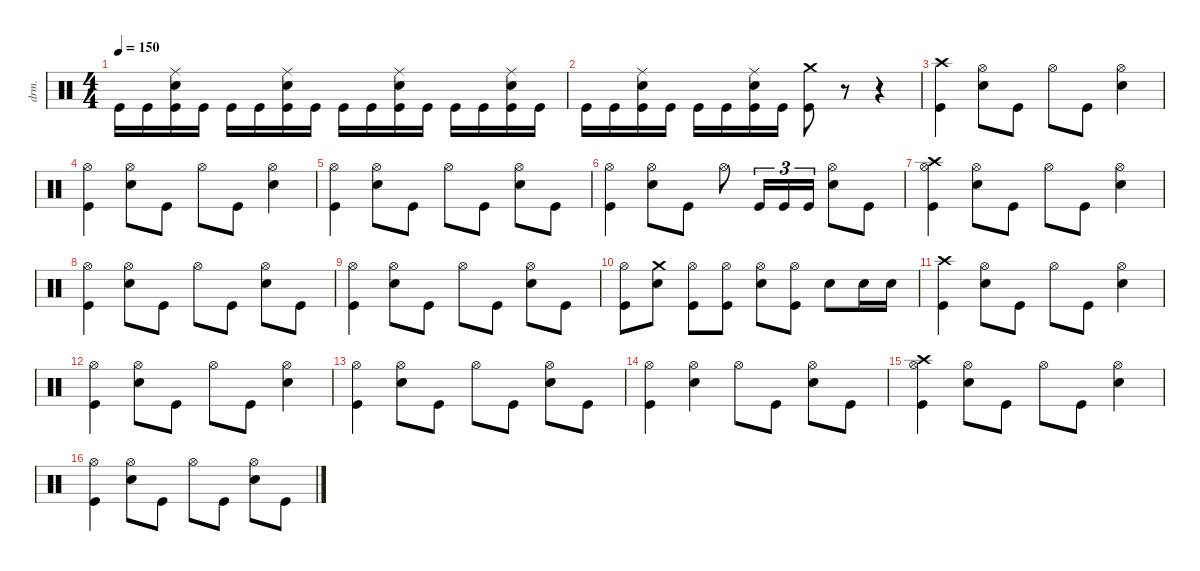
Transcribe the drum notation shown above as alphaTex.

\defaultSystemsLayout 4
\hideDynamics
\bracketExtendMode nobrackets
\otherSystemsTrackNameOrientation horizontal
\track ("Percussions" "drm.") {instrument percussion}
\staff {score}
\articulation defaults
\ts (4 4)
\tempo 150
\clef neutral
\ks c "Kick (hit)".16{dy mf beam Down} "Kick (hit)".16{beam Down}
("Kick (hit)" "Snare (hit) 2" "Ride (middle)").16{beam Down} "Kick (hit)".16{beam Down} "Kick (hit)".16{beam Down} "Kick (hit)".16{beam Down} ("Kick (hit)" "Snare (hit) 2" "Ride (middle)").16{beam Down} "Kick (hit)".16{beam Down} "Kick (hit)".16{beam Down} "Kick (hit)".16{beam Down} ("Kick (hit)" "Snare (hit) 2" "Ride (middle)").16{beam Down} "Kick (hit)".16{beam Down} "Kick (hit)".16{beam Down} "Kick (hit)".16{beam Down} ("Kick (hit)" "Snare (hit) 2" "Ride (middle)").16{beam Down} "Kick (hit)".16{beam Down} |
"Kick (hit)".16{beam Down} "Kick (hit)".16{beam Down} ("Kick (hit)" "Snare (hit) 2" "Ride (middle)").16{beam Down} "Kick (hit)".16{beam Down} "Kick (hit)".16{beam Down} "Kick (hit)".16{beam Down} ("Kick (hit)" "Snare (hit) 2" "Ride (middle)").16{beam Down} "Kick (hit)".16{beam Down} ("Kick (hit)" "Crash medium (hit)").8{beam Down} r.8{beam Down} r.4{beam Down} |
("Kick (hit)" "Crash high (hit)").4{dy f beam Down} ("Snare (hit) 2" "Hi-Hat (open)").8{beam Down} "Kick (hit)".8{beam Down} "Hi-Hat (open)".8{dy mf beam Down} "Kick (hit)".8{dy f beam Down} ("Snare (hit) 2" "Hi-Hat (open)").4{beam Down} |
("Kick (hit)" "Hi-Hat (open)").4{beam Down} ("Snare (hit) 2" "Hi-Hat (open)").8{beam Down} "Kick (hit)".8{beam Down} "Hi-Hat (open)".8{dy mf beam Down} "Kick (hit)".8{dy f beam Down} ("Snare (hit) 2" "Hi-Hat (open)").4{beam Down} |
("Kick (hit)" "Hi-Hat (open)").4{beam Down} ("Snare (hit) 2" "Hi-Hat (open)").8{beam Down} "Kick (hit)".8{beam Down} "Hi-Hat (open)".8{dy mf beam Down} "Kick (hit)".8{dy f beam Down} ("Snare (hit) 2" "Hi-Hat (open)").8{beam Down} "Kick (hit)".8{beam Down} |
("Kick (hit)" "Hi-Hat (open)").4{beam Down} ("Snare (hit) 2" "Hi-Hat (open)").8{beam Down} "Kick (hit)".8{beam Down} "Hi-Hat (open)".8{dy mf beam Down} "Kick (hit)".16{tu (3 2) dy f beam Up} "Kick (hit)".16{tu (3 2) beam Up} "Kick (hit)".16{tu (3 2) beam Up} ("Snare (hit) 2" "Hi-Hat (open)").8{beam Down} "Kick (hit)".8{beam Down} |
("Kick (hit)" "Hi-Hat (open)" "Crash high (hit)").4{beam Down} ("Snare (hit) 2" "Hi-Hat (open)").8{beam Down} "Kick (hit)".8{beam Down} "Hi-Hat (open)".8{dy mf beam Down} "Kick (hit)".8{dy f beam Down} ("Snare (hit) 2" "Hi-Hat (open)").4{beam Down} |
("Kick (hit)" "Hi-Hat (open)").4{beam Down} ("Snare (hit) 2" "Hi-Hat (open)").8{beam Down} "Kick (hit)".8{beam Down} "Hi-Hat (open)".8{dy mf beam Down} "Kick (hit)".8{dy f beam Down} ("Snare (hit) 2" "Hi-Hat (open)").8{beam Down} "Kick (hit)".8{beam Down} |
("Kick (hit)" "Hi-Hat (open)").4{beam Down} ("Snare (hit) 2" "Hi-Hat (open)").8{beam Down} "Kick (hit)".8{beam Down} "Hi-Hat (open)".8{dy mf beam Down} "Kick (hit)".8{dy f beam Down} ("Snare (hit) 2" "Hi-Hat (open)").8{beam Down} "Kick (hit)".8{beam Down} |
("Kick (hit)" "Hi-Hat (open)").8{beam Down} ("Snare (hit) 2" "Crash medium (hit)").8{beam Down} ("Kick (hit)" "Hi-Hat (open)").8{beam Down} ("Kick (hit)" "Hi-Hat (open)").8{beam Down} ("Snare (hit) 2" "Hi-Hat (open)").8{beam Down} ("Kick (hit)" "Hi-Hat (open)").8{beam Down} "Snare (hit) 2".8{beam Down} "Snare (hit) 2".16{beam Down} "Snare (hit) 2".16{beam Down} |
("Kick (hit)" "Crash high (hit)").4{beam Down} ("Snare (hit) 2" "Hi-Hat (open)").8{beam Down} "Kick (hit)".8{beam Down} "Hi-Hat (open)".8{dy mf beam Down} "Kick (hit)".8{dy f beam Down} ("Snare (hit) 2" "Hi-Hat (open)").4{beam Down} |
("Kick (hit)" "Hi-Hat (open)").4{beam Down} ("Snare (hit) 2" "Hi-Hat (open)").8{beam Down} "Kick (hit)".8{beam Down} "Hi-Hat (open)".8{dy mf beam Down} "Kick (hit)".8{dy f beam Down} ("Snare (hit) 2" "Hi-Hat (open)").4{beam Down} |
("Kick (hit)" "Hi-Hat (open)").4{beam Down} ("Snare (hit) 2" "Hi-Hat (open)").8{beam Down} "Kick (hit)".8{beam Down} "Hi-Hat (open)".8{dy mf beam Down} "Kick (hit)".8{dy f beam Down} ("Snare (hit) 2" "Hi-Hat (open)").8{beam Down} "Kick (hit)".8{beam Down} |
("Kick (hit)" "Hi-Hat (open)").4{beam Down} ("Snare (hit) 2" "Hi-Hat (open)").4{beam Down} "Hi-Hat (open)".8{dy mf beam Down} "Kick (hit)".8{dy f beam Down} ("Snare (hit) 2" "Hi-Hat (open)").8{beam Down} "Kick (hit)".8{beam Down} |
("Kick (hit)" "Hi-Hat (open)" "Crash high (hit)").4{beam Down} ("Snare (hit) 2" "Hi-Hat (open)").8{beam Down} "Kick (hit)".8{beam Down} "Hi-Hat (open)".8{dy mf beam Down} "Kick (hit)".8{dy f beam Down} ("Snare (hit) 2" "Hi-Hat (open)").4{beam Down} |
("Kick (hit)" "Hi-Hat (open)").4{beam Down} ("Snare (hit) 2" "Hi-Hat (open)").8{beam Down} "Kick (hit)".8{beam Down} "Hi-Hat (open)".8{dy mf beam Down} "Kick (hit)".8{dy f beam Down} ("Snare (hit) 2" "Hi-Hat (open)").8{beam Down} "Kick (hit)".8{beam Down}
